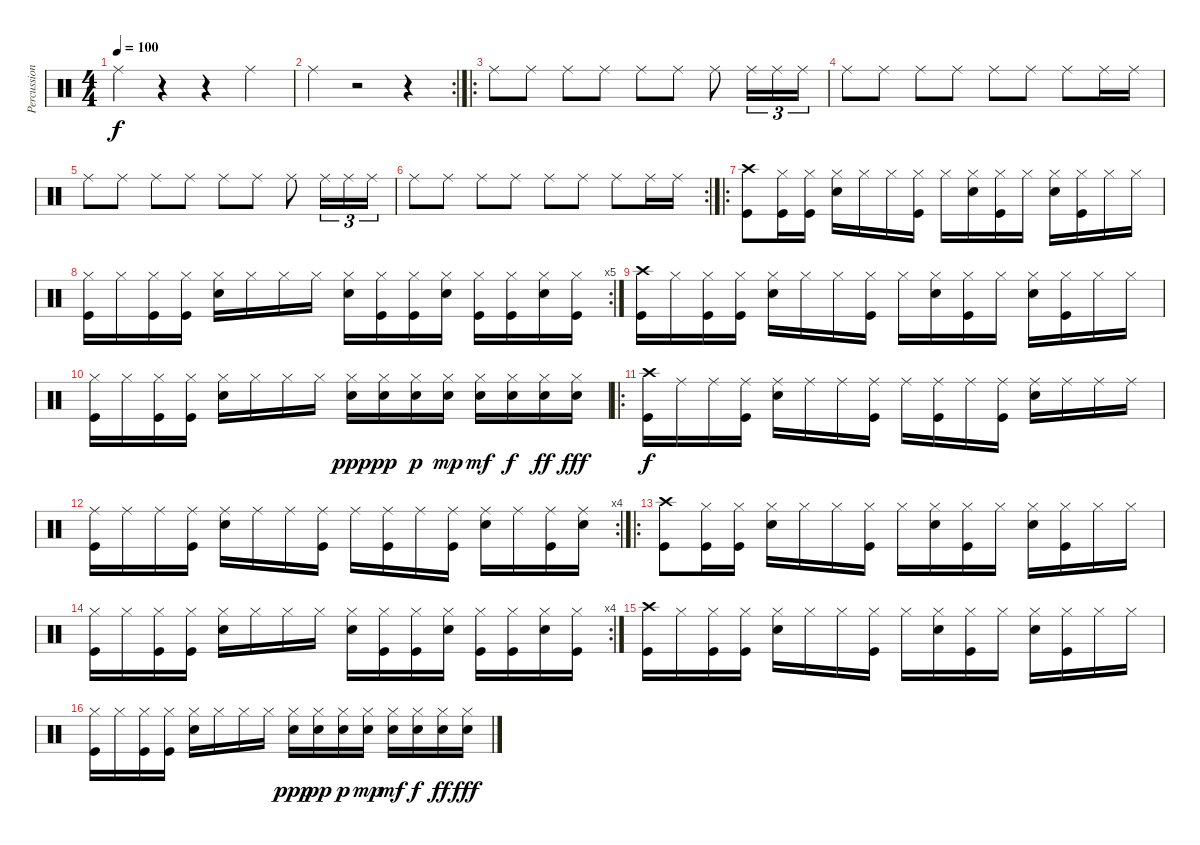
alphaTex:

\track ("Percussion" "Percussion") {instrument percussion}
\staff {score}
\articulation defaults
\ts (4 4)
\tempo 100
\clef neutral
\ks c "Ride (middle)".4{dy f}
r.4 r.4 "Ride (middle)".4 |
\rc 2 "Ride (middle)".4
r.2 r.4 |
\ro "Ride (middle)".8 "Ride (middle)".8 "Ride (middle)".8 "Ride (middle)".8 "Ride (middle)".8 "Ride (middle)".8 "Ride (middle)".8 "Ride (middle)".16{tu (3 2)} "Ride (middle)".16{tu (3 2)} "Ride (middle)".16{tu (3 2)}
|
"Ride (middle)".8 "Ride (middle)".8 "Ride (middle)".8 "Ride (middle)".8 "Ride (middle)".8 "Ride (middle)".8 "Ride (middle)".8 "Ride (middle)".16 "Ride (middle)".16 |
"Ride (middle)".8 "Ride (middle)".8 "Ride (middle)".8 "Ride (middle)".8 "Ride (middle)".8 "Ride (middle)".8 "Ride (middle)".8 "Ride (middle)".16{tu (3 2)} "Ride (middle)".16{tu (3 2)} "Ride (middle)".16{tu (3 2)} |
\rc 2 "Ride (middle)".8 "Ride (middle)".8 "Ride (middle)".8 "Ride (middle)".8 "Ride (middle)".8 "Ride (middle)".8 "Ride (middle)".8 "Ride (middle)".16 "Ride (middle)".16
|
\ro
("Crash high (hit)" "Kick (hit)").8 ("Hi-Hat (closed)" "Kick (hit)").16 ("Hi-Hat (closed)" "Kick (hit)").16 ("Hi-Hat (closed)" "Snare (hit) 2").16 "Hi-Hat (closed)".16 "Hi-Hat (closed)".16 ("Hi-Hat (closed)" "Kick (hit)").16 "Hi-Hat (closed)".16 ("Hi-Hat (closed)" "Snare (hit) 2").16 ("Hi-Hat (closed)" "Kick (hit)").16 "Hi-Hat (closed)".16 ("Hi-Hat (closed)" "Snare (hit) 2").16 ("Hi-Hat (closed)" "Kick (hit)").16 "Hi-Hat (closed)".16 "Hi-Hat (closed)".16 |
\rc 5
("Hi-Hat (closed)" "Kick (hit)").16 "Hi-Hat (closed)".16 ("Hi-Hat (closed)" "Kick (hit)").16 ("Hi-Hat (closed)" "Kick (hit)").16 ("Hi-Hat (closed)" "Snare (hit) 2").16 "Hi-Hat (closed)".16 "Hi-Hat (closed)".16 "Hi-Hat (closed)".16 ("Hi-Hat (closed)" "Snare (hit) 2").16 ("Hi-Hat (closed)" "Kick (hit)").16 ("Hi-Hat (closed)" "Kick (hit)").16 ("Hi-Hat (closed)" "Snare (hit) 2").16 ("Hi-Hat (closed)" "Kick (hit)").16 ("Hi-Hat (closed)" "Kick (hit)").16 ("Hi-Hat (closed)" "Snare (hit) 2").16 ("Hi-Hat (closed)" "Kick (hit)").16 |
("Crash high (hit)" "Kick (hit)").16 "Hi-Hat (closed)".16 ("Hi-Hat (closed)" "Kick (hit)").16 ("Hi-Hat (closed)" "Kick (hit)").16 ("Hi-Hat (closed)" "Snare (hit) 2").16 "Hi-Hat (closed)".16 "Hi-Hat (closed)".16 ("Hi-Hat (closed)" "Kick (hit)").16 "Hi-Hat (closed)".16 ("Hi-Hat (closed)" "Snare (hit) 2").16 ("Hi-Hat (closed)" "Kick (hit)").16 "Hi-Hat (closed)".16 ("Hi-Hat (closed)" "Snare (hit) 2").16 ("Hi-Hat (closed)" "Kick (hit)").16 "Hi-Hat (closed)".16 "Hi-Hat (closed)".16 |
("Hi-Hat (closed)" "Kick (hit)").16 "Hi-Hat (closed)".16 ("Hi-Hat (closed)" "Kick (hit)").16 ("Hi-Hat (closed)" "Kick (hit)").16 ("Hi-Hat (closed)" "Snare (hit) 2").16 "Hi-Hat (closed)".16 "Hi-Hat (closed)".16 "Hi-Hat (closed)".16 ("Hi-Hat (closed)" "Snare (hit) 2").16{dy ppp} ("Hi-Hat (closed)" "Snare (hit) 2").16{dy pp} ("Hi-Hat (closed)" "Snare (hit) 2").16{dy p} ("Hi-Hat (closed)" "Snare (hit) 2").16{dy mp} ("Hi-Hat (closed)" "Snare (hit) 2").16{dy mf} ("Hi-Hat (closed)" "Snare (hit) 2").16{dy f} ("Hi-Hat (closed)" "Snare (hit) 2").16{dy ff} ("Hi-Hat (closed)" "Snare (hit) 2").16{dy fff} |
\ro
("Crash high (hit)" "Kick (hit)").16{dy f} "Ride (middle)".16 "Ride (middle)".16 ("Ride (middle)" "Kick (hit)").16 ("Ride (middle)" "Snare (hit) 2").16 "Ride (middle)".16 "Ride (middle)".16 ("Ride (middle)" "Kick (hit)").16 "Ride (middle)".16 ("Ride (middle)" "Kick (hit)").16 "Ride (middle)".16 ("Ride (middle)" "Kick (hit)").16 ("Ride (middle)" "Snare (hit) 2").16 "Ride (middle)".16 "Ride (middle)".16 "Ride (middle)".16 |
\rc 4
("Ride (middle)" "Kick (hit)").16 "Ride (middle)".16 "Ride (middle)".16 ("Ride (middle)" "Kick (hit)").16 ("Ride (middle)" "Snare (hit) 2").16 "Ride (middle)".16 "Ride (middle)".16 ("Ride (middle)" "Kick (hit)").16 "Ride (middle)".16 ("Ride (middle)" "Kick (hit)").16 "Ride (middle)".16 ("Ride (middle)" "Kick (hit)").16 ("Ride (middle)" "Snare (hit) 2").16 "Ride (middle)".16 ("Ride (middle)" "Kick (hit)").16 ("Ride (middle)" "Snare (hit) 2").16 |
\ro
("Crash high (hit)" "Kick (hit)").8 ("Hi-Hat (closed)" "Kick (hit)").16 ("Hi-Hat (closed)" "Kick (hit)").16 ("Hi-Hat (closed)" "Snare (hit) 2").16 "Hi-Hat (closed)".16 "Hi-Hat (closed)".16 ("Hi-Hat (closed)" "Kick (hit)").16 "Hi-Hat (closed)".16 ("Hi-Hat (closed)" "Snare (hit) 2").16 ("Hi-Hat (closed)" "Kick (hit)").16 "Hi-Hat (closed)".16 ("Hi-Hat (closed)" "Snare (hit) 2").16 ("Hi-Hat (closed)" "Kick (hit)").16 "Hi-Hat (closed)".16 "Hi-Hat (closed)".16 |
\rc 4
("Hi-Hat (closed)" "Kick (hit)").16 "Hi-Hat (closed)".16 ("Hi-Hat (closed)" "Kick (hit)").16 ("Hi-Hat (closed)" "Kick (hit)").16 ("Hi-Hat (closed)" "Snare (hit) 2").16 "Hi-Hat (closed)".16 "Hi-Hat (closed)".16 "Hi-Hat (closed)".16 ("Hi-Hat (closed)" "Snare (hit) 2").16 ("Hi-Hat (closed)" "Kick (hit)").16 ("Hi-Hat (closed)" "Kick (hit)").16 ("Hi-Hat (closed)" "Snare (hit) 2").16 ("Hi-Hat (closed)" "Kick (hit)").16 ("Hi-Hat (closed)" "Kick (hit)").16 ("Hi-Hat (closed)" "Snare (hit) 2").16 ("Hi-Hat (closed)" "Kick (hit)").16 |
("Crash high (hit)" "Kick (hit)").16 "Hi-Hat (closed)".16 ("Hi-Hat (closed)" "Kick (hit)").16 ("Hi-Hat (closed)" "Kick (hit)").16 ("Hi-Hat (closed)" "Snare (hit) 2").16 "Hi-Hat (closed)".16 "Hi-Hat (closed)".16 ("Hi-Hat (closed)" "Kick (hit)").16 "Hi-Hat (closed)".16 ("Hi-Hat (closed)" "Snare (hit) 2").16 ("Hi-Hat (closed)" "Kick (hit)").16 "Hi-Hat (closed)".16 ("Hi-Hat (closed)" "Snare (hit) 2").16 ("Hi-Hat (closed)" "Kick (hit)").16 "Hi-Hat (closed)".16 "Hi-Hat (closed)".16 |
("Hi-Hat (closed)" "Kick (hit)").16 "Hi-Hat (closed)".16 ("Hi-Hat (closed)" "Kick (hit)").16 ("Hi-Hat (closed)" "Kick (hit)").16 ("Hi-Hat (closed)" "Snare (hit) 2").16 "Hi-Hat (closed)".16 "Hi-Hat (closed)".16 "Hi-Hat (closed)".16 ("Hi-Hat (closed)" "Snare (hit) 2").16{dy ppp} ("Hi-Hat (closed)" "Snare (hit) 2").16{dy pp} ("Hi-Hat (closed)" "Snare (hit) 2").16{dy p} ("Hi-Hat (closed)" "Snare (hit) 2").16{dy mp} ("Hi-Hat (closed)" "Snare (hit) 2").16{dy mf} ("Hi-Hat (closed)" "Snare (hit) 2").16{dy f} ("Hi-Hat (closed)" "Snare (hit) 2").16{dy ff} ("Hi-Hat (closed)" "Snare (hit) 2").16{dy fff}
